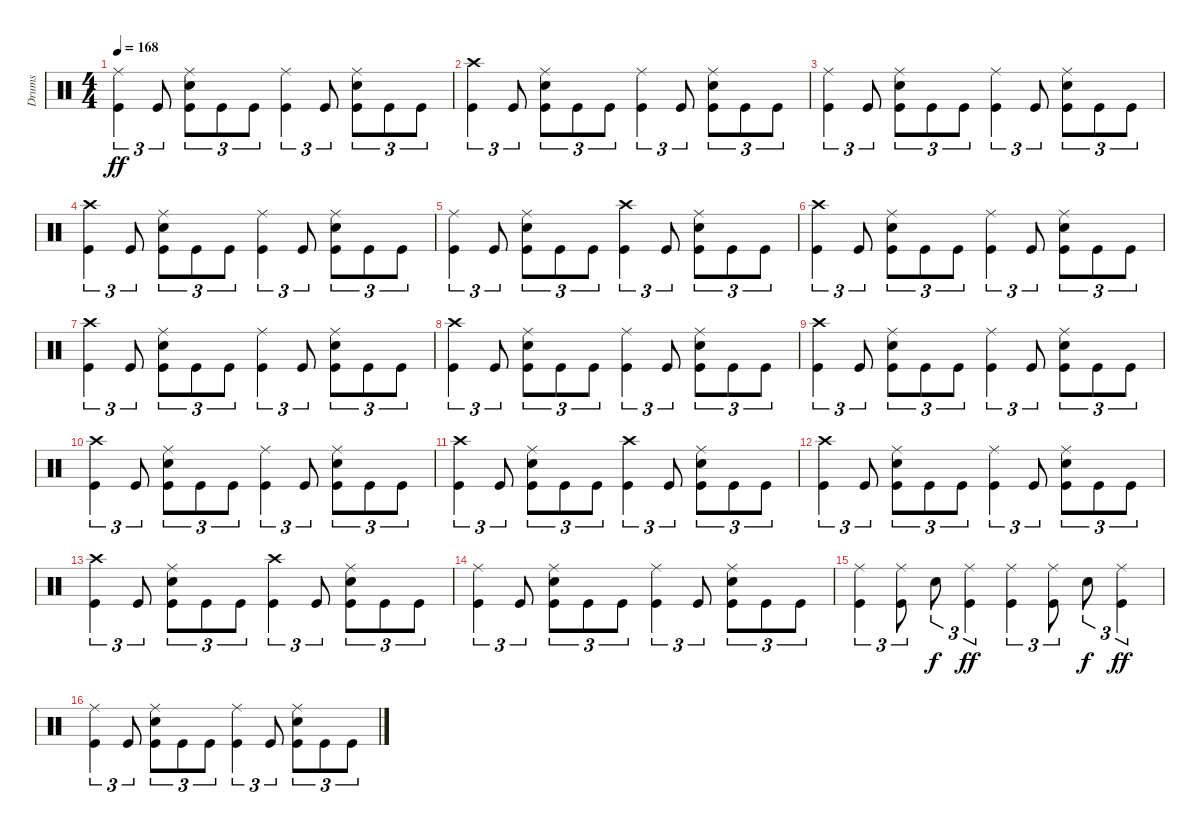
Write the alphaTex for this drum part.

\track ("Drums" "Drums") {instrument percussion}
\staff {score}
\articulation defaults
\ts (4 4)
\tempo 168
\clef neutral
\ks c
("Ride (middle)" "Kick (hit)").4{tu (3 2) dy ff} "Kick (hit)".8{tu (3 2)} ("Ride (middle)" "Electric Snare (hit)" "Kick (hit)").8{tu (3 2)} "Kick (hit)".8{tu (3 2)} "Kick (hit)".8{tu (3 2)} ("Ride (middle)" "Kick (hit)").4{tu (3 2)} "Kick (hit)".8{tu (3 2)} ("Ride (middle)" "Electric Snare (hit)" "Kick (hit)").8{tu (3 2)} "Kick (hit)".8{tu (3 2)} "Kick (hit)".8{tu (3 2)} |
("Crash high (hit)" "Kick (hit)").4{tu (3 2)} "Kick (hit)".8{tu (3 2)} ("Ride (middle)" "Electric Snare (hit)" "Kick (hit)").8{tu (3 2)} "Kick (hit)".8{tu (3 2)} "Kick (hit)".8{tu (3 2)} ("Ride (middle)" "Kick (hit)").4{tu (3 2)} "Kick (hit)".8{tu (3 2)} ("Ride (middle)" "Electric Snare (hit)" "Kick (hit)").8{tu (3 2)} "Kick (hit)".8{tu (3 2)} "Kick (hit)".8{tu (3 2)} |
("Ride (middle)" "Kick (hit)").4{tu (3 2)} "Kick (hit)".8{tu (3 2)} ("Ride (middle)" "Electric Snare (hit)" "Kick (hit)").8{tu (3 2)} "Kick (hit)".8{tu (3 2)} "Kick (hit)".8{tu (3 2)} ("Ride (middle)" "Kick (hit)").4{tu (3 2)} "Kick (hit)".8{tu (3 2)} ("Ride (middle)" "Electric Snare (hit)" "Kick (hit)").8{tu (3 2)} "Kick (hit)".8{tu (3 2)} "Kick (hit)".8{tu (3 2)} |
("Crash high (hit)" "Kick (hit)").4{tu (3 2)} "Kick (hit)".8{tu (3 2)} ("Ride (middle)" "Electric Snare (hit)" "Kick (hit)").8{tu (3 2)} "Kick (hit)".8{tu (3 2)} "Kick (hit)".8{tu (3 2)} ("Ride (middle)" "Kick (hit)").4{tu (3 2)} "Kick (hit)".8{tu (3 2)} ("Ride (middle)" "Electric Snare (hit)" "Kick (hit)").8{tu (3 2)} "Kick (hit)".8{tu (3 2)} "Kick (hit)".8{tu (3 2)} |
("Ride (middle)" "Kick (hit)").4{tu (3 2)} "Kick (hit)".8{tu (3 2)} ("Ride (middle)" "Electric Snare (hit)" "Kick (hit)").8{tu (3 2)} "Kick (hit)".8{tu (3 2)} "Kick (hit)".8{tu (3 2)} ("Crash high (hit)" "Kick (hit)").4{tu (3 2)} "Kick (hit)".8{tu (3 2)} ("Ride (middle)" "Electric Snare (hit)" "Kick (hit)").8{tu (3 2)} "Kick (hit)".8{tu (3 2)} "Kick (hit)".8{tu (3 2)} |
("Crash high (hit)" "Kick (hit)").4{tu (3 2)} "Kick (hit)".8{tu (3 2)} ("Ride (middle)" "Electric Snare (hit)" "Kick (hit)").8{tu (3 2)} "Kick (hit)".8{tu (3 2)} "Kick (hit)".8{tu (3 2)} ("Ride (middle)" "Kick (hit)").4{tu (3 2)} "Kick (hit)".8{tu (3 2)} ("Ride (middle)" "Electric Snare (hit)" "Kick (hit)").8{tu (3 2)} "Kick (hit)".8{tu (3 2)} "Kick (hit)".8{tu (3 2)} |
("Crash high (hit)" "Kick (hit)").4{tu (3 2)} "Kick (hit)".8{tu (3 2)} ("Ride (middle)" "Electric Snare (hit)" "Kick (hit)").8{tu (3 2)} "Kick (hit)".8{tu (3 2)} "Kick (hit)".8{tu (3 2)} ("Ride (middle)" "Kick (hit)").4{tu (3 2)} "Kick (hit)".8{tu (3 2)} ("Ride (middle)" "Electric Snare (hit)" "Kick (hit)").8{tu (3 2)} "Kick (hit)".8{tu (3 2)} "Kick (hit)".8{tu (3 2)} |
("Crash high (hit)" "Kick (hit)").4{tu (3 2)} "Kick (hit)".8{tu (3 2)} ("Ride (middle)" "Electric Snare (hit)" "Kick (hit)").8{tu (3 2)} "Kick (hit)".8{tu (3 2)} "Kick (hit)".8{tu (3 2)} ("Ride (middle)" "Kick (hit)").4{tu (3 2)} "Kick (hit)".8{tu (3 2)} ("Ride (middle)" "Electric Snare (hit)" "Kick (hit)").8{tu (3 2)} "Kick (hit)".8{tu (3 2)} "Kick (hit)".8{tu (3 2)} |
("Crash high (hit)" "Kick (hit)").4{tu (3 2)} "Kick (hit)".8{tu (3 2)} ("Ride (middle)" "Electric Snare (hit)" "Kick (hit)").8{tu (3 2)} "Kick (hit)".8{tu (3 2)} "Kick (hit)".8{tu (3 2)} ("Ride (middle)" "Kick (hit)").4{tu (3 2)} "Kick (hit)".8{tu (3 2)} ("Ride (middle)" "Electric Snare (hit)" "Kick (hit)").8{tu (3 2)} "Kick (hit)".8{tu (3 2)} "Kick (hit)".8{tu (3 2)} |
("Crash high (hit)" "Kick (hit)").4{tu (3 2)} "Kick (hit)".8{tu (3 2)} ("Ride (middle)" "Electric Snare (hit)" "Kick (hit)").8{tu (3 2)} "Kick (hit)".8{tu (3 2)} "Kick (hit)".8{tu (3 2)} ("Ride (middle)" "Kick (hit)").4{tu (3 2)} "Kick (hit)".8{tu (3 2)} ("Ride (middle)" "Electric Snare (hit)" "Kick (hit)").8{tu (3 2)} "Kick (hit)".8{tu (3 2)} "Kick (hit)".8{tu (3 2)} |
("Crash high (hit)" "Kick (hit)").4{tu (3 2)} "Kick (hit)".8{tu (3 2)} ("Ride (middle)" "Electric Snare (hit)" "Kick (hit)").8{tu (3 2)} "Kick (hit)".8{tu (3 2)} "Kick (hit)".8{tu (3 2)} ("Crash high (hit)" "Kick (hit)").4{tu (3 2)} "Kick (hit)".8{tu (3 2)} ("Ride (middle)" "Electric Snare (hit)" "Kick (hit)").8{tu (3 2)} "Kick (hit)".8{tu (3 2)} "Kick (hit)".8{tu (3 2)} |
("Crash high (hit)" "Kick (hit)").4{tu (3 2)} "Kick (hit)".8{tu (3 2)} ("Ride (middle)" "Electric Snare (hit)" "Kick (hit)").8{tu (3 2)} "Kick (hit)".8{tu (3 2)} "Kick (hit)".8{tu (3 2)} ("Ride (middle)" "Kick (hit)").4{tu (3 2)} "Kick (hit)".8{tu (3 2)} ("Ride (middle)" "Electric Snare (hit)" "Kick (hit)").8{tu (3 2)} "Kick (hit)".8{tu (3 2)} "Kick (hit)".8{tu (3 2)} |
("Crash high (hit)" "Kick (hit)").4{tu (3 2)} "Kick (hit)".8{tu (3 2)} ("Ride (middle)" "Electric Snare (hit)" "Kick (hit)").8{tu (3 2)} "Kick (hit)".8{tu (3 2)} "Kick (hit)".8{tu (3 2)} ("Crash high (hit)" "Kick (hit)").4{tu (3 2)} "Kick (hit)".8{tu (3 2)} ("Ride (middle)" "Electric Snare (hit)" "Kick (hit)").8{tu (3 2)} "Kick (hit)".8{tu (3 2)} "Kick (hit)".8{tu (3 2)} |
("Ride (middle)" "Kick (hit)").4{tu (3 2)} "Kick (hit)".8{tu (3 2)} ("Ride (middle)" "Electric Snare (hit)" "Kick (hit)").8{tu (3 2)} "Kick (hit)".8{tu (3 2)} "Kick (hit)".8{tu (3 2)} ("Ride (middle)" "Kick (hit)").4{tu (3 2)} "Kick (hit)".8{tu (3 2)} ("Ride (middle)" "Electric Snare (hit)" "Kick (hit)").8{tu (3 2)} "Kick (hit)".8{tu (3 2)} "Kick (hit)".8{tu (3 2)} |
("Ride (middle)" "Kick (hit)").4{tu (3 2)} ("Ride (middle)" "Kick (hit)").8{tu (3 2)} "Electric Snare (hit)".8{tu (3 2) dy f} ("Ride (middle)" "Kick (hit)").4{tu (3 2) dy ff} ("Ride (middle)" "Kick (hit)").4{tu (3 2)} ("Ride (middle)" "Kick (hit)").8{tu (3 2)} "Electric Snare (hit)".8{tu (3 2) dy f} ("Ride (middle)" "Kick (hit)").4{tu (3 2) dy ff} |
("Ride (middle)" "Kick (hit)").4{tu (3 2)} "Kick (hit)".8{tu (3 2)} ("Ride (middle)" "Electric Snare (hit)" "Kick (hit)").8{tu (3 2)} "Kick (hit)".8{tu (3 2)} "Kick (hit)".8{tu (3 2)} ("Ride (middle)" "Kick (hit)").4{tu (3 2)} "Kick (hit)".8{tu (3 2)} ("Ride (middle)" "Electric Snare (hit)" "Kick (hit)").8{tu (3 2)} "Kick (hit)".8{tu (3 2)} "Kick (hit)".8{tu (3 2)}
